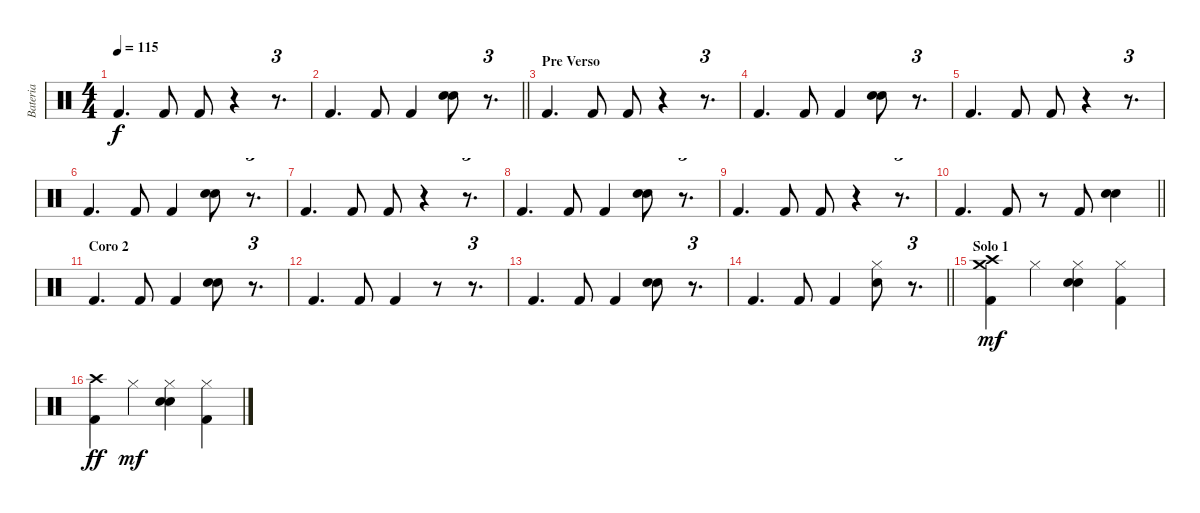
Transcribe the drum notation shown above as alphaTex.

\track ("Bateria" "Bateria") {instrument percussion}
\staff {score}
\articulation defaults
\ts (4 4)
\tempo 115
\clef neutral
\ks c "Kick (hit) 2".4{d dy f} "Kick (hit) 2".8 "Kick (hit) 2".8
r.4 r.8{d tu (3 2)} |
\barLineRight lightlight "Kick (hit) 2".4{d} "Kick (hit) 2".8 "Kick (hit) 2".4
("Snare (hit) 2" "Electric Snare (hit)").8 r.8{d tu (3 2)} |
\section ("" "Pre Verso")
"Kick (hit) 2".4{d} "Kick (hit) 2".8 "Kick (hit) 2".8 r.4 r.8{d tu (3 2)} |
"Kick (hit) 2".4{d} "Kick (hit) 2".8 "Kick (hit) 2".4 ("Snare (hit) 2" "Electric Snare (hit)").8 r.8{d tu (3 2)} |
"Kick (hit) 2".4{d} "Kick (hit) 2".8 "Kick (hit) 2".8 r.4 r.8{d tu (3 2)} |
"Kick (hit) 2".4{d} "Kick (hit) 2".8 "Kick (hit) 2".4 ("Snare (hit) 2" "Electric Snare (hit)").8 r.8{d tu (3 2)} |
"Kick (hit) 2".4{d} "Kick (hit) 2".8 "Kick (hit) 2".8 r.4 r.8{d tu (3 2)} |
"Kick (hit) 2".4{d} "Kick (hit) 2".8 "Kick (hit) 2".4 ("Snare (hit) 2" "Electric Snare (hit)").8 r.8{d tu (3 2)} |
"Kick (hit) 2".4{d} "Kick (hit) 2".8 "Kick (hit) 2".8 r.4 r.8{d tu (3 2)} |
\barLineRight lightlight "Kick (hit) 2".4{d} "Kick (hit) 2".8
r.8 "Kick (hit) 2".8 ("Snare (hit) 2" "Electric Snare (hit)").4 |
\section ("" "Coro 2")
"Kick (hit) 2".4{d} "Kick (hit) 2".8 "Kick (hit) 2".4 ("Snare (hit) 2" "Electric Snare (hit)").8 r.8{d tu (3 2)} |
"Kick (hit) 2".4{d} "Kick (hit) 2".8 "Kick (hit) 2".4 r.8 r.8{d tu (3 2)} |
"Kick (hit) 2".4{d} "Kick (hit) 2".8 "Kick (hit) 2".4 ("Snare (hit) 2" "Electric Snare (hit)").8 r.8{d tu (3 2)} |
\barLineRight lightlight "Kick (hit) 2".4{d} "Kick (hit) 2".8 "Kick (hit) 2".4
("Snare (hit) 2" "Hi-Hat (closed)").8 r.8{d tu (3 2)} |
\section ("" "Solo 1")
("Crash medium (hit)" "Kick (hit) 2" "Crash high (hit)").4{dy mf} "Hi-Hat (closed)".4 ("Hi-Hat (closed)" "Snare (hit) 2" "Electric Snare (hit)").4 ("Hi-Hat (closed)" "Kick (hit) 2").4 |
("Crash high (hit)" "Kick (hit) 2").4{dy ff} "Hi-Hat (closed)".4{dy mf} ("Hi-Hat (closed)" "Snare (hit) 2" "Electric Snare (hit)").4 ("Hi-Hat (closed)" "Kick (hit) 2").4
